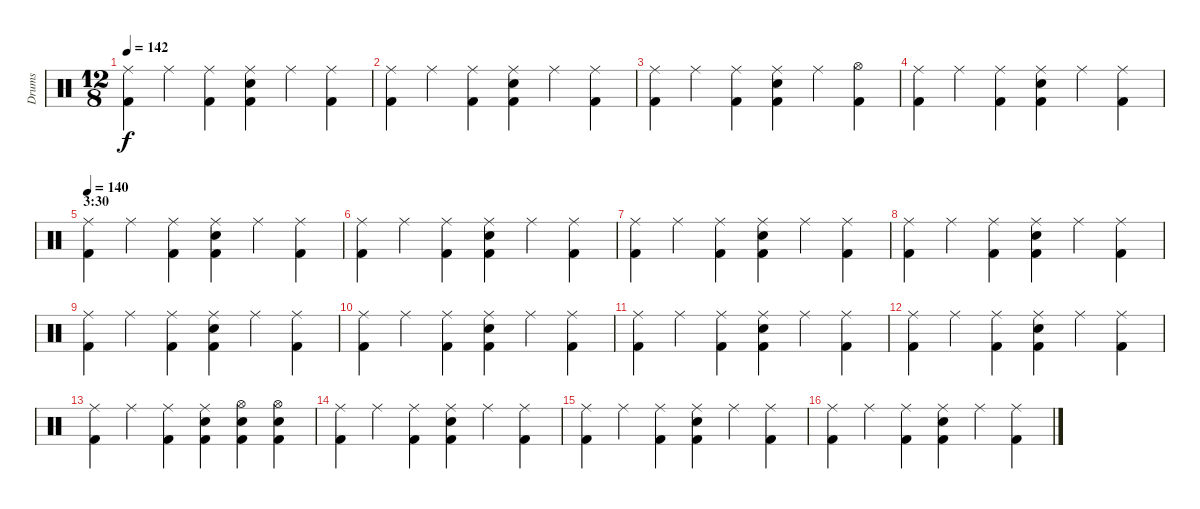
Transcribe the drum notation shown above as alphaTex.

\track ("Drums" "Drums") {instrument percussion}
\staff {score}
\articulation defaults
\ts (12 8)
\tempo 142
\clef neutral
\ks c
("Ride (middle)" "Kick (hit) 2").4{dy f} "Ride (middle)".4 ("Ride (middle)" "Kick (hit) 2").4 ("Ride (middle)" "Snare (hit) 2" "Kick (hit) 2").4 "Ride (middle)".4 ("Ride (middle)" "Kick (hit) 2").4 |
("Ride (middle)" "Kick (hit) 2").4 "Ride (middle)".4 ("Ride (middle)" "Kick (hit) 2").4 ("Ride (middle)" "Snare (hit) 2" "Kick (hit) 2").4 "Ride (middle)".4 ("Ride (middle)" "Kick (hit) 2").4 |
("Ride (middle)" "Kick (hit) 2").4 "Ride (middle)".4 ("Ride (middle)" "Kick (hit) 2").4 ("Ride (middle)" "Snare (hit) 2" "Kick (hit) 2").4 "Ride (middle)".4 ("Hi-Hat (open)" "Kick (hit) 2").4 |
("Ride (middle)" "Kick (hit) 2").4 "Ride (middle)".4 ("Ride (middle)" "Kick (hit) 2").4 ("Ride (middle)" "Snare (hit) 2" "Kick (hit) 2").4 "Ride (middle)".4 ("Ride (middle)" "Kick (hit) 2").4 |
\section ("" "3:30")
\tempo 140
("Ride (middle)" "Kick (hit) 2").4 "Ride (middle)".4 ("Ride (middle)" "Kick (hit) 2").4 ("Ride (middle)" "Snare (hit) 2" "Kick (hit) 2").4 "Ride (middle)".4 ("Ride (middle)" "Kick (hit) 2").4 |
("Ride (middle)" "Kick (hit) 2").4 "Ride (middle)".4 ("Ride (middle)" "Kick (hit) 2").4 ("Ride (middle)" "Snare (hit) 2" "Kick (hit) 2").4 "Ride (middle)".4 ("Ride (middle)" "Kick (hit) 2").4 |
("Ride (middle)" "Kick (hit) 2").4 "Ride (middle)".4 ("Ride (middle)" "Kick (hit) 2").4 ("Ride (middle)" "Snare (hit) 2" "Kick (hit) 2").4 "Ride (middle)".4 ("Ride (middle)" "Kick (hit) 2").4 |
("Ride (middle)" "Kick (hit) 2").4 "Ride (middle)".4 ("Ride (middle)" "Kick (hit) 2").4 ("Ride (middle)" "Snare (hit) 2" "Kick (hit) 2").4 "Ride (middle)".4 ("Ride (middle)" "Kick (hit) 2").4 |
("Ride (middle)" "Kick (hit) 2").4 "Ride (middle)".4 ("Ride (middle)" "Kick (hit) 2").4 ("Ride (middle)" "Snare (hit) 2" "Kick (hit) 2").4 "Ride (middle)".4 ("Ride (middle)" "Kick (hit) 2").4 |
("Ride (middle)" "Kick (hit) 2").4 "Ride (middle)".4 ("Ride (middle)" "Kick (hit) 2").4 ("Ride (middle)" "Snare (hit) 2" "Kick (hit) 2").4 "Ride (middle)".4 ("Ride (middle)" "Kick (hit) 2").4 |
("Ride (middle)" "Kick (hit) 2").4 "Ride (middle)".4 ("Ride (middle)" "Kick (hit) 2").4 ("Ride (middle)" "Snare (hit) 2" "Kick (hit) 2").4 "Ride (middle)".4 ("Ride (middle)" "Kick (hit) 2").4 |
("Ride (middle)" "Kick (hit) 2").4 "Ride (middle)".4 ("Ride (middle)" "Kick (hit) 2").4 ("Ride (middle)" "Snare (hit) 2" "Kick (hit) 2").4 "Ride (middle)".4 ("Ride (middle)" "Kick (hit) 2").4 |
("Ride (middle)" "Kick (hit) 2").4 "Ride (middle)".4 ("Ride (middle)" "Kick (hit) 2").4 ("Ride (middle)" "Snare (hit) 2" "Kick (hit) 2").4 ("Hi-Hat (open)" "Snare (hit) 2" "Kick (hit) 2").4 ("Hi-Hat (open)" "Snare (hit) 2" "Kick (hit) 2").4 |
("Ride (middle)" "Kick (hit) 2").4 "Ride (middle)".4 ("Ride (middle)" "Kick (hit) 2").4 ("Ride (middle)" "Snare (hit) 2" "Kick (hit) 2").4 "Ride (middle)".4 ("Ride (middle)" "Kick (hit) 2").4 |
("Ride (middle)" "Kick (hit) 2").4 "Ride (middle)".4 ("Ride (middle)" "Kick (hit) 2").4 ("Ride (middle)" "Snare (hit) 2" "Kick (hit) 2").4 "Ride (middle)".4 ("Ride (middle)" "Kick (hit) 2").4 |
("Ride (middle)" "Kick (hit) 2").4 "Ride (middle)".4 ("Ride (middle)" "Kick (hit) 2").4 ("Ride (middle)" "Snare (hit) 2" "Kick (hit) 2").4 "Ride (middle)".4 ("Ride (middle)" "Kick (hit) 2").4
